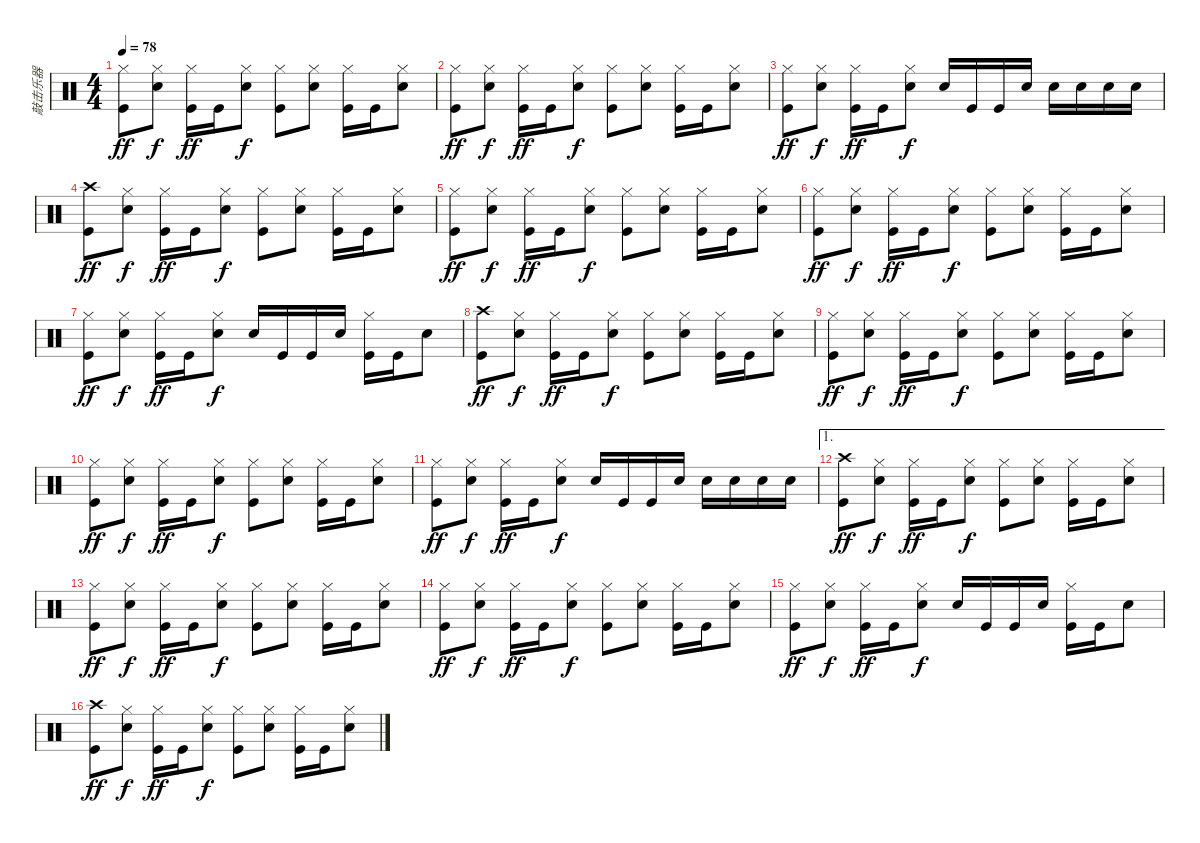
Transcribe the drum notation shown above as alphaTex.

\track ("敲击乐器" "敲击乐器") {instrument percussion}
\staff {score}
\articulation defaults
\ts (4 4)
\tempo 78
\clef neutral
\ks c
("Hi-Hat (closed)" "Kick (hit)").8{dy ff} ("Electric Snare (hit)" "Hi-Hat (closed)").8{dy f} ("Hi-Hat (closed)" "Kick (hit)").16{dy ff} "Kick (hit)".16 ("Hi-Hat (closed)" "Electric Snare (hit)").8{dy f} ("Hi-Hat (closed)" "Kick (hit)").8 ("Hi-Hat (closed)" "Electric Snare (hit)").8 ("Hi-Hat (closed)" "Kick (hit)").16 "Kick (hit)".16 ("Electric Snare (hit)" "Hi-Hat (closed)").8 |
("Hi-Hat (closed)" "Kick (hit)").8{dy ff} ("Electric Snare (hit)" "Hi-Hat (closed)").8{dy f} ("Hi-Hat (closed)" "Kick (hit)").16{dy ff} "Kick (hit)".16 ("Hi-Hat (closed)" "Electric Snare (hit)").8{dy f} ("Hi-Hat (closed)" "Kick (hit)").8 ("Hi-Hat (closed)" "Electric Snare (hit)").8 ("Hi-Hat (closed)" "Kick (hit)").16 "Kick (hit)".16 ("Electric Snare (hit)" "Hi-Hat (closed)").8 |
("Hi-Hat (closed)" "Kick (hit)").8{dy ff} ("Electric Snare (hit)" "Hi-Hat (closed)").8{dy f} ("Hi-Hat (closed)" "Kick (hit)").16{dy ff} "Kick (hit)".16 ("Hi-Hat (closed)" "Electric Snare (hit)").8{dy f} "Electric Snare (hit)".16 "Kick (hit)".16 "Kick (hit)".16 "Electric Snare (hit)".16 "Electric Snare (hit)".16 "Electric Snare (hit)".16 "Electric Snare (hit)".16 "Electric Snare (hit)".16 |
("Crash high (hit)" "Kick (hit)").8{dy ff} ("Electric Snare (hit)" "Hi-Hat (closed)").8{dy f} ("Hi-Hat (closed)" "Kick (hit)").16{dy ff} "Kick (hit)".16 ("Hi-Hat (closed)" "Electric Snare (hit)").8{dy f} ("Hi-Hat (closed)" "Kick (hit)").8 ("Hi-Hat (closed)" "Electric Snare (hit)").8 ("Hi-Hat (closed)" "Kick (hit)").16 "Kick (hit)".16 ("Electric Snare (hit)" "Hi-Hat (closed)").8 |
("Hi-Hat (closed)" "Kick (hit)").8{dy ff} ("Electric Snare (hit)" "Hi-Hat (closed)").8{dy f} ("Hi-Hat (closed)" "Kick (hit)").16{dy ff} "Kick (hit)".16 ("Hi-Hat (closed)" "Electric Snare (hit)").8{dy f} ("Hi-Hat (closed)" "Kick (hit)").8 ("Hi-Hat (closed)" "Electric Snare (hit)").8 ("Hi-Hat (closed)" "Kick (hit)").16 "Kick (hit)".16 ("Electric Snare (hit)" "Hi-Hat (closed)").8 |
("Hi-Hat (closed)" "Kick (hit)").8{dy ff} ("Electric Snare (hit)" "Hi-Hat (closed)").8{dy f} ("Hi-Hat (closed)" "Kick (hit)").16{dy ff} "Kick (hit)".16 ("Hi-Hat (closed)" "Electric Snare (hit)").8{dy f} ("Hi-Hat (closed)" "Kick (hit)").8 ("Hi-Hat (closed)" "Electric Snare (hit)").8 ("Hi-Hat (closed)" "Kick (hit)").16 "Kick (hit)".16 ("Electric Snare (hit)" "Hi-Hat (closed)").8 |
("Hi-Hat (closed)" "Kick (hit)").8{dy ff} ("Electric Snare (hit)" "Hi-Hat (closed)").8{dy f} ("Hi-Hat (closed)" "Kick (hit)").16{dy ff} "Kick (hit)".16 ("Hi-Hat (closed)" "Electric Snare (hit)").8{dy f} "Electric Snare (hit)".16 "Kick (hit)".16 "Kick (hit)".16 "Electric Snare (hit)".16 ("Hi-Hat (closed)" "Kick (hit)").16 "Kick (hit)".16 "Electric Snare (hit)".8 |
("Crash high (hit)" "Kick (hit)").8{dy ff} ("Electric Snare (hit)" "Hi-Hat (closed)").8{dy f} ("Hi-Hat (closed)" "Kick (hit)").16{dy ff} "Kick (hit)".16 ("Hi-Hat (closed)" "Electric Snare (hit)").8{dy f} ("Hi-Hat (closed)" "Kick (hit)").8 ("Hi-Hat (closed)" "Electric Snare (hit)").8 ("Hi-Hat (closed)" "Kick (hit)").16 "Kick (hit)".16 ("Electric Snare (hit)" "Hi-Hat (closed)").8 |
("Hi-Hat (closed)" "Kick (hit)").8{dy ff} ("Electric Snare (hit)" "Hi-Hat (closed)").8{dy f} ("Hi-Hat (closed)" "Kick (hit)").16{dy ff} "Kick (hit)".16 ("Hi-Hat (closed)" "Electric Snare (hit)").8{dy f} ("Hi-Hat (closed)" "Kick (hit)").8 ("Hi-Hat (closed)" "Electric Snare (hit)").8 ("Hi-Hat (closed)" "Kick (hit)").16 "Kick (hit)".16 ("Electric Snare (hit)" "Hi-Hat (closed)").8 |
("Hi-Hat (closed)" "Kick (hit)").8{dy ff} ("Electric Snare (hit)" "Hi-Hat (closed)").8{dy f} ("Hi-Hat (closed)" "Kick (hit)").16{dy ff} "Kick (hit)".16 ("Hi-Hat (closed)" "Electric Snare (hit)").8{dy f} ("Hi-Hat (closed)" "Kick (hit)").8 ("Hi-Hat (closed)" "Electric Snare (hit)").8 ("Hi-Hat (closed)" "Kick (hit)").16 "Kick (hit)".16 ("Electric Snare (hit)" "Hi-Hat (closed)").8 |
("Hi-Hat (closed)" "Kick (hit)").8{dy ff} ("Electric Snare (hit)" "Hi-Hat (closed)").8{dy f} ("Hi-Hat (closed)" "Kick (hit)").16{dy ff} "Kick (hit)".16 ("Hi-Hat (closed)" "Electric Snare (hit)").8{dy f} "Electric Snare (hit)".16 "Kick (hit)".16 "Kick (hit)".16 "Electric Snare (hit)".16 "Electric Snare (hit)".16 "Electric Snare (hit)".16 "Electric Snare (hit)".16 "Electric Snare (hit)".16 |
\ae 1
("Crash high (hit)" "Kick (hit)").8{dy ff} ("Electric Snare (hit)" "Hi-Hat (closed)").8{dy f} ("Hi-Hat (closed)" "Kick (hit)").16{dy ff} "Kick (hit)".16 ("Hi-Hat (closed)" "Electric Snare (hit)").8{dy f} ("Hi-Hat (closed)" "Kick (hit)").8 ("Hi-Hat (closed)" "Electric Snare (hit)").8 ("Hi-Hat (closed)" "Kick (hit)").16 "Kick (hit)".16 ("Electric Snare (hit)" "Hi-Hat (closed)").8 |
("Hi-Hat (closed)" "Kick (hit)").8{dy ff} ("Electric Snare (hit)" "Hi-Hat (closed)").8{dy f} ("Hi-Hat (closed)" "Kick (hit)").16{dy ff} "Kick (hit)".16 ("Hi-Hat (closed)" "Electric Snare (hit)").8{dy f} ("Hi-Hat (closed)" "Kick (hit)").8 ("Hi-Hat (closed)" "Electric Snare (hit)").8 ("Hi-Hat (closed)" "Kick (hit)").16 "Kick (hit)".16 ("Electric Snare (hit)" "Hi-Hat (closed)").8 |
("Hi-Hat (closed)" "Kick (hit)").8{dy ff} ("Electric Snare (hit)" "Hi-Hat (closed)").8{dy f} ("Hi-Hat (closed)" "Kick (hit)").16{dy ff} "Kick (hit)".16 ("Hi-Hat (closed)" "Electric Snare (hit)").8{dy f} ("Hi-Hat (closed)" "Kick (hit)").8 ("Hi-Hat (closed)" "Electric Snare (hit)").8 ("Hi-Hat (closed)" "Kick (hit)").16 "Kick (hit)".16 ("Electric Snare (hit)" "Hi-Hat (closed)").8 |
("Hi-Hat (closed)" "Kick (hit)").8{dy ff} ("Electric Snare (hit)" "Hi-Hat (closed)").8{dy f} ("Hi-Hat (closed)" "Kick (hit)").16{dy ff} "Kick (hit)".16 ("Hi-Hat (closed)" "Electric Snare (hit)").8{dy f} "Electric Snare (hit)".16 "Kick (hit)".16 "Kick (hit)".16 "Electric Snare (hit)".16 ("Hi-Hat (closed)" "Kick (hit)").16 "Kick (hit)".16 "Electric Snare (hit)".8 |
("Crash high (hit)" "Kick (hit)").8{dy ff} ("Electric Snare (hit)" "Hi-Hat (closed)").8{dy f} ("Hi-Hat (closed)" "Kick (hit)").16{dy ff} "Kick (hit)".16 ("Hi-Hat (closed)" "Electric Snare (hit)").8{dy f} ("Hi-Hat (closed)" "Kick (hit)").8 ("Hi-Hat (closed)" "Electric Snare (hit)").8 ("Hi-Hat (closed)" "Kick (hit)").16 "Kick (hit)".16 ("Electric Snare (hit)" "Hi-Hat (closed)").8
